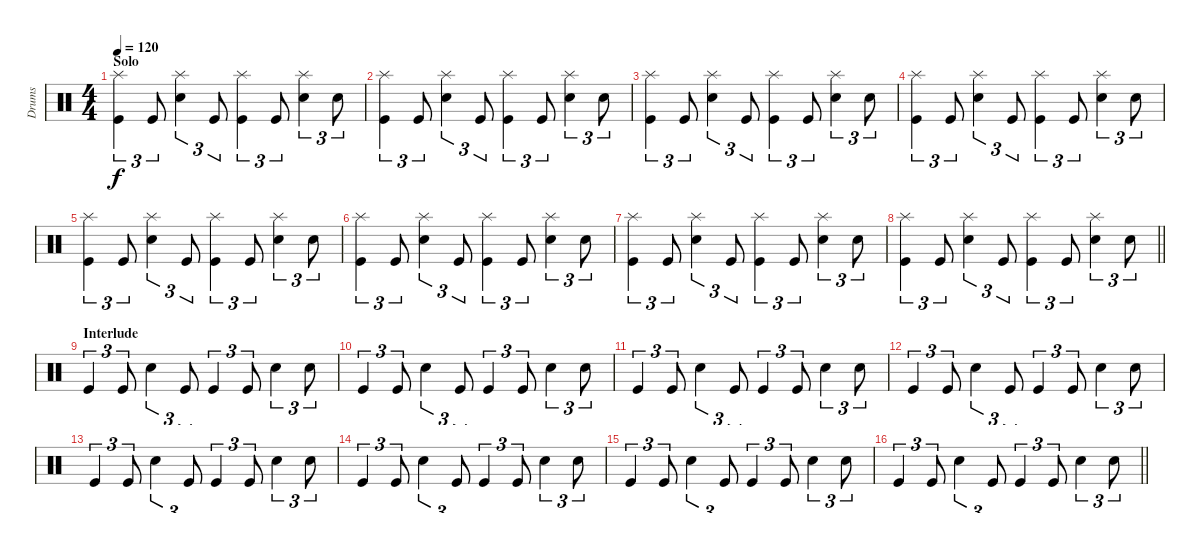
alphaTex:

\track ("Drums" "Drums") {instrument percussion}
\staff {score}
\articulation defaults
\ts (4 4)
\section ("" "Solo")
\tempo 120
\clef neutral
\ks c
("Splash (hit)" "Kick (hit)").4{tu (3 2) dy f} "Kick (hit)".8{tu (3 2)} ("Splash (hit)" "Electric Snare (hit)").4{tu (3 2)} "Kick (hit)".8{tu (3 2)} ("Splash (hit)" "Kick (hit)").4{tu (3 2)} "Kick (hit)".8{tu (3 2)} ("Splash (hit)" "Electric Snare (hit)").4{tu (3 2)} "Electric Snare (hit)".8{tu (3 2)} |
("Splash (hit)" "Kick (hit)").4{tu (3 2)} "Kick (hit)".8{tu (3 2)} ("Splash (hit)" "Electric Snare (hit)").4{tu (3 2)} "Kick (hit)".8{tu (3 2)} ("Splash (hit)" "Kick (hit)").4{tu (3 2)} "Kick (hit)".8{tu (3 2)} ("Splash (hit)" "Electric Snare (hit)").4{tu (3 2)} "Electric Snare (hit)".8{tu (3 2)} |
("Splash (hit)" "Kick (hit)").4{tu (3 2)} "Kick (hit)".8{tu (3 2)} ("Splash (hit)" "Electric Snare (hit)").4{tu (3 2)} "Kick (hit)".8{tu (3 2)} ("Splash (hit)" "Kick (hit)").4{tu (3 2)} "Kick (hit)".8{tu (3 2)} ("Splash (hit)" "Electric Snare (hit)").4{tu (3 2)} "Electric Snare (hit)".8{tu (3 2)} |
("Splash (hit)" "Kick (hit)").4{tu (3 2)} "Kick (hit)".8{tu (3 2)} ("Splash (hit)" "Electric Snare (hit)").4{tu (3 2)} "Kick (hit)".8{tu (3 2)} ("Splash (hit)" "Kick (hit)").4{tu (3 2)} "Kick (hit)".8{tu (3 2)} ("Splash (hit)" "Electric Snare (hit)").4{tu (3 2)} "Electric Snare (hit)".8{tu (3 2)} |
("Splash (hit)" "Kick (hit)").4{tu (3 2)} "Kick (hit)".8{tu (3 2)} ("Splash (hit)" "Electric Snare (hit)").4{tu (3 2)} "Kick (hit)".8{tu (3 2)} ("Splash (hit)" "Kick (hit)").4{tu (3 2)} "Kick (hit)".8{tu (3 2)} ("Splash (hit)" "Electric Snare (hit)").4{tu (3 2)} "Electric Snare (hit)".8{tu (3 2)} |
("Splash (hit)" "Kick (hit)").4{tu (3 2)} "Kick (hit)".8{tu (3 2)} ("Splash (hit)" "Electric Snare (hit)").4{tu (3 2)} "Kick (hit)".8{tu (3 2)} ("Splash (hit)" "Kick (hit)").4{tu (3 2)} "Kick (hit)".8{tu (3 2)} ("Splash (hit)" "Electric Snare (hit)").4{tu (3 2)} "Electric Snare (hit)".8{tu (3 2)} |
("Splash (hit)" "Kick (hit)").4{tu (3 2)} "Kick (hit)".8{tu (3 2)} ("Splash (hit)" "Electric Snare (hit)").4{tu (3 2)} "Kick (hit)".8{tu (3 2)} ("Splash (hit)" "Kick (hit)").4{tu (3 2)} "Kick (hit)".8{tu (3 2)} ("Splash (hit)" "Electric Snare (hit)").4{tu (3 2)} "Electric Snare (hit)".8{tu (3 2)} |
\barLineRight lightlight
("Splash (hit)" "Kick (hit)").4{tu (3 2)} "Kick (hit)".8{tu (3 2)} ("Splash (hit)" "Electric Snare (hit)").4{tu (3 2)} "Kick (hit)".8{tu (3 2)} ("Splash (hit)" "Kick (hit)").4{tu (3 2)} "Kick (hit)".8{tu (3 2)} ("Splash (hit)" "Electric Snare (hit)").4{tu (3 2)} "Electric Snare (hit)".8{tu (3 2)} |
\section ("" "Interlude")
"Kick (hit)".4{tu (3 2)} "Kick (hit)".8{tu (3 2)} "Electric Snare (hit)".4{tu (3 2)} "Kick (hit)".8{tu (3 2)} "Kick (hit)".4{tu (3 2)} "Kick (hit)".8{tu (3 2)} "Electric Snare (hit)".4{tu (3 2)} "Electric Snare (hit)".8{tu (3 2)} |
"Kick (hit)".4{tu (3 2)} "Kick (hit)".8{tu (3 2)} "Electric Snare (hit)".4{tu (3 2)} "Kick (hit)".8{tu (3 2)} "Kick (hit)".4{tu (3 2)} "Kick (hit)".8{tu (3 2)} "Electric Snare (hit)".4{tu (3 2)} "Electric Snare (hit)".8{tu (3 2)} |
"Kick (hit)".4{tu (3 2)} "Kick (hit)".8{tu (3 2)} "Electric Snare (hit)".4{tu (3 2)} "Kick (hit)".8{tu (3 2)} "Kick (hit)".4{tu (3 2)} "Kick (hit)".8{tu (3 2)} "Electric Snare (hit)".4{tu (3 2)} "Electric Snare (hit)".8{tu (3 2)} |
"Kick (hit)".4{tu (3 2)} "Kick (hit)".8{tu (3 2)} "Electric Snare (hit)".4{tu (3 2)} "Kick (hit)".8{tu (3 2)} "Kick (hit)".4{tu (3 2)} "Kick (hit)".8{tu (3 2)} "Electric Snare (hit)".4{tu (3 2)} "Electric Snare (hit)".8{tu (3 2)} |
"Kick (hit)".4{tu (3 2)} "Kick (hit)".8{tu (3 2)} "Electric Snare (hit)".4{tu (3 2)} "Kick (hit)".8{tu (3 2)} "Kick (hit)".4{tu (3 2)} "Kick (hit)".8{tu (3 2)} "Electric Snare (hit)".4{tu (3 2)} "Electric Snare (hit)".8{tu (3 2)} |
"Kick (hit)".4{tu (3 2)} "Kick (hit)".8{tu (3 2)} "Electric Snare (hit)".4{tu (3 2)} "Kick (hit)".8{tu (3 2)} "Kick (hit)".4{tu (3 2)} "Kick (hit)".8{tu (3 2)} "Electric Snare (hit)".4{tu (3 2)} "Electric Snare (hit)".8{tu (3 2)} |
"Kick (hit)".4{tu (3 2)} "Kick (hit)".8{tu (3 2)} "Electric Snare (hit)".4{tu (3 2)} "Kick (hit)".8{tu (3 2)} "Kick (hit)".4{tu (3 2)} "Kick (hit)".8{tu (3 2)} "Electric Snare (hit)".4{tu (3 2)} "Electric Snare (hit)".8{tu (3 2)} |
\barLineRight lightlight "Kick (hit)".4{tu (3 2)} "Kick (hit)".8{tu (3 2)} "Electric Snare (hit)".4{tu (3 2)} "Kick (hit)".8{tu (3 2)} "Kick (hit)".4{tu (3 2)} "Kick (hit)".8{tu (3 2)} "Electric Snare (hit)".4{tu (3 2)} "Electric Snare (hit)".8{tu (3 2)}
